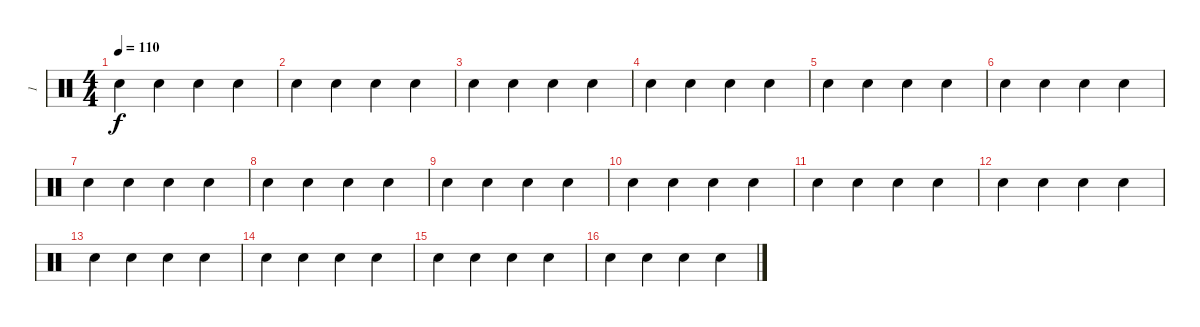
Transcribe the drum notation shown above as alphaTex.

\track ("1" "1") {instrument percussion}
\staff {score}
\articulation defaults
\ts (4 4)
\tempo 110
\clef neutral
\ks c "Electric Snare (hit)".4{dy f} "Electric Snare (hit)".4 "Electric Snare (hit)".4 "Electric Snare (hit)".4
|
"Electric Snare (hit)".4 "Electric Snare (hit)".4 "Electric Snare (hit)".4 "Electric Snare (hit)".4 |
"Electric Snare (hit)".4 "Electric Snare (hit)".4 "Electric Snare (hit)".4 "Electric Snare (hit)".4 |
"Electric Snare (hit)".4 "Electric Snare (hit)".4 "Electric Snare (hit)".4 "Electric Snare (hit)".4 |
"Electric Snare (hit)".4 "Electric Snare (hit)".4 "Electric Snare (hit)".4 "Electric Snare (hit)".4 |
"Electric Snare (hit)".4 "Electric Snare (hit)".4 "Electric Snare (hit)".4 "Electric Snare (hit)".4 |
"Electric Snare (hit)".4 "Electric Snare (hit)".4 "Electric Snare (hit)".4 "Electric Snare (hit)".4 |
"Electric Snare (hit)".4 "Electric Snare (hit)".4 "Electric Snare (hit)".4 "Electric Snare (hit)".4 |
"Electric Snare (hit)".4 "Electric Snare (hit)".4 "Electric Snare (hit)".4 "Electric Snare (hit)".4 |
"Electric Snare (hit)".4 "Electric Snare (hit)".4 "Electric Snare (hit)".4 "Electric Snare (hit)".4 |
"Electric Snare (hit)".4 "Electric Snare (hit)".4 "Electric Snare (hit)".4 "Electric Snare (hit)".4 |
"Electric Snare (hit)".4 "Electric Snare (hit)".4 "Electric Snare (hit)".4 "Electric Snare (hit)".4 |
"Electric Snare (hit)".4 "Electric Snare (hit)".4 "Electric Snare (hit)".4 "Electric Snare (hit)".4 |
"Electric Snare (hit)".4 "Electric Snare (hit)".4 "Electric Snare (hit)".4 "Electric Snare (hit)".4 |
"Electric Snare (hit)".4 "Electric Snare (hit)".4 "Electric Snare (hit)".4 "Electric Snare (hit)".4 |
"Electric Snare (hit)".4 "Electric Snare (hit)".4 "Electric Snare (hit)".4 "Electric Snare (hit)".4
